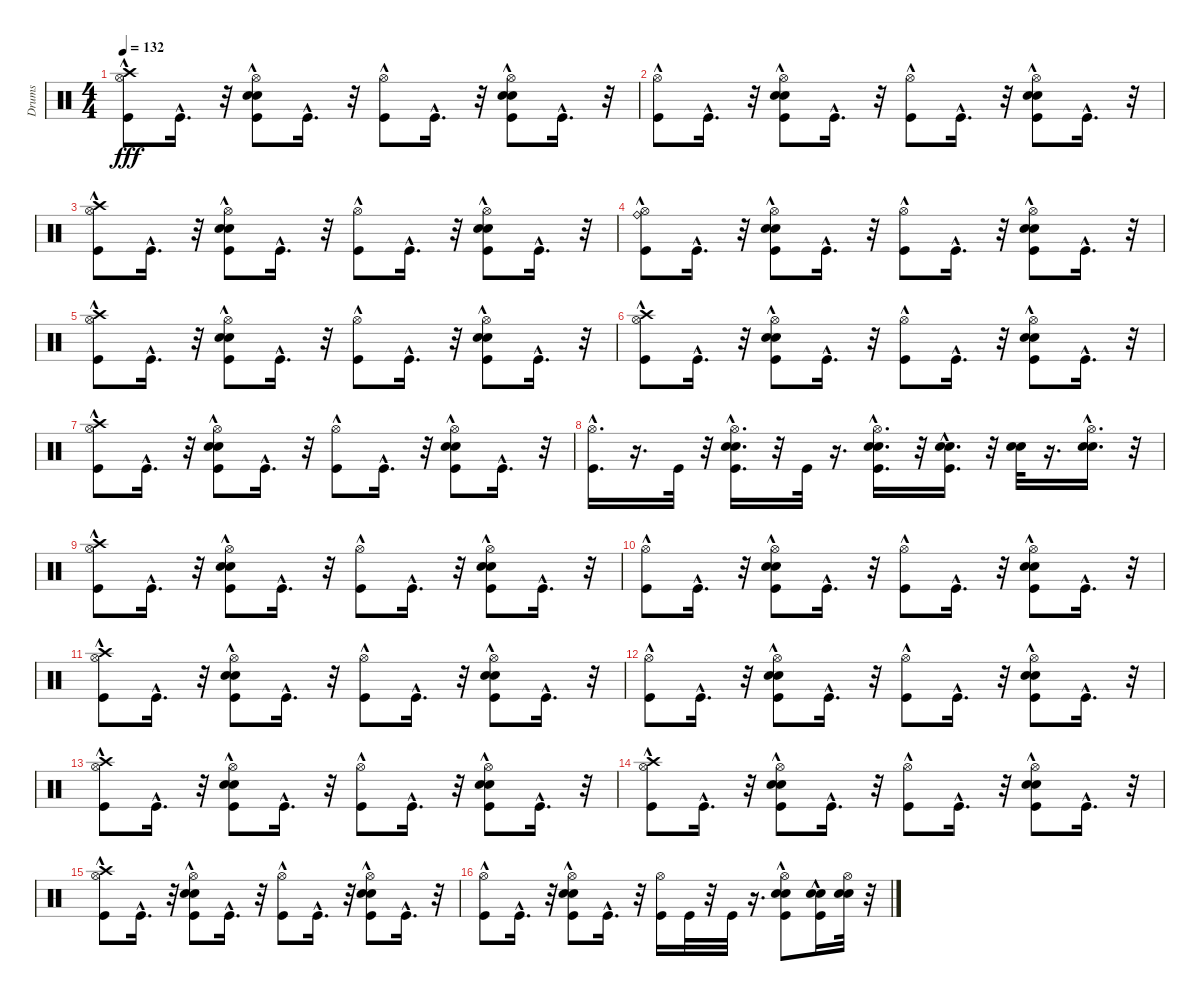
\track ("Drums" "Drums") {instrument percussion}
\staff {score}
\articulation defaults
\ts (4 4)
\tempo 132
\clef neutral
\ks c
("Hi-Hat (open)" "Kick (hit)"{hac} "Crash high (hit)"{hac}).8{dy fff} "Kick (hit)"{hac}.16{d} r.32 ("Hi-Hat (open)" "Kick (hit)"{hac} "Snare (hit) 2"{hac} "Electric Snare (hit)"{hac}).8 "Kick (hit)"{hac}.16{d} r.32 ("Hi-Hat (open)" "Kick (hit)"{hac}).8 "Kick (hit)"{hac}.16{d} r.32 ("Hi-Hat (open)" "Kick (hit)"{hac} "Snare (hit) 2"{hac} "Electric Snare (hit)"{hac}).8 "Kick (hit)"{hac}.16{d} r.32 |
("Hi-Hat (open)" "Kick (hit)"{hac}).8 "Kick (hit)"{hac}.16{d} r.32 ("Hi-Hat (open)" "Kick (hit)"{hac} "Snare (hit) 2"{hac} "Electric Snare (hit)"{hac}).8 "Kick (hit)"{hac}.16{d} r.32 ("Hi-Hat (open)" "Kick (hit)"{hac}).8 "Kick (hit)"{hac}.16{d} r.32 ("Hi-Hat (open)" "Kick (hit)"{hac} "Snare (hit) 2"{hac} "Electric Snare (hit)"{hac}).8 "Kick (hit)"{hac}.16{d} r.32 |
("Hi-Hat (open)" "Kick (hit)"{hac} "Crash high (hit)"{hac}).8 "Kick (hit)"{hac}.16{d} r.32 ("Hi-Hat (open)" "Kick (hit)"{hac} "Snare (hit) 2"{hac} "Electric Snare (hit)"{hac}).8 "Kick (hit)"{hac}.16{d} r.32 ("Hi-Hat (open)" "Kick (hit)"{hac}).8 "Kick (hit)"{hac}.16{d} r.32 ("Hi-Hat (open)" "Kick (hit)"{hac} "Snare (hit) 2"{hac} "Electric Snare (hit)"{hac}).8 "Kick (hit)"{hac}.16{d} r.32 |
("Hi-Hat (open)" "Kick (hit)"{hac} "Ride (bell)"{hac}).8 "Kick (hit)"{hac}.16{d} r.32 ("Hi-Hat (open)" "Kick (hit)"{hac} "Snare (hit) 2"{hac} "Electric Snare (hit)"{hac}).8 "Kick (hit)"{hac}.16{d} r.32 ("Hi-Hat (open)" "Kick (hit)"{hac}).8 "Kick (hit)"{hac}.16{d} r.32 ("Hi-Hat (open)" "Kick (hit)"{hac} "Snare (hit) 2"{hac} "Electric Snare (hit)"{hac}).8 "Kick (hit)"{hac}.16{d} r.32 |
("Hi-Hat (open)" "Kick (hit)"{hac} "Crash high (hit)"{hac}).8 "Kick (hit)"{hac}.16{d} r.32 ("Hi-Hat (open)" "Kick (hit)"{hac} "Snare (hit) 2"{hac} "Electric Snare (hit)"{hac}).8 "Kick (hit)"{hac}.16{d} r.32 ("Hi-Hat (open)" "Kick (hit)"{hac}).8 "Kick (hit)"{hac}.16{d} r.32 ("Hi-Hat (open)" "Kick (hit)"{hac} "Snare (hit) 2"{hac} "Electric Snare (hit)"{hac}).8 "Kick (hit)"{hac}.16{d} r.32 |
("Hi-Hat (open)" "Kick (hit)"{hac} "Crash high (hit)"{hac}).8 "Kick (hit)"{hac}.16{d} r.32 ("Hi-Hat (open)" "Kick (hit)"{hac} "Snare (hit) 2"{hac} "Electric Snare (hit)"{hac}).8 "Kick (hit)"{hac}.16{d} r.32 ("Hi-Hat (open)" "Kick (hit)"{hac}).8 "Kick (hit)"{hac}.16{d} r.32 ("Hi-Hat (open)" "Kick (hit)"{hac} "Snare (hit) 2"{hac} "Electric Snare (hit)"{hac}).8 "Kick (hit)"{hac}.16{d} r.32 |
("Hi-Hat (open)" "Kick (hit)"{hac} "Crash high (hit)"{hac}).8 "Kick (hit)"{hac}.16{d} r.32 ("Hi-Hat (open)" "Kick (hit)"{hac} "Snare (hit) 2"{hac} "Electric Snare (hit)"{hac}).8 "Kick (hit)"{hac}.16{d} r.32 ("Hi-Hat (open)" "Kick (hit)"{hac}).8 "Kick (hit)"{hac}.16{d} r.32 ("Hi-Hat (open)" "Kick (hit)"{hac} "Snare (hit) 2"{hac} "Electric Snare (hit)"{hac}).8 "Kick (hit)"{hac}.16{d} r.32 |
("Kick (hit)"{hac} "Hi-Hat (open)"{hac}).16{d} r.16{d} "Kick (hit)".32 r.32 ("Kick (hit)"{hac} "Hi-Hat (open)"{hac} "Snare (hit) 2"{hac} "Electric Snare (hit)"{hac}).16{d} r.32 "Kick (hit)".32 r.16{d} ("Kick (hit)"{hac} "Hi-Hat (open)"{hac} "Snare (hit) 2"{hac} "Electric Snare (hit)"{hac}).16{d} r.32 ("Kick (hit)" "Snare (hit) 2"{hac} "Electric Snare (hit)"{hac}).16{d} r.32 ("Snare (hit) 2" "Electric Snare (hit)").32 r.16{d} ("Hi-Hat (open)"{hac} "Snare (hit) 2"{hac} "Electric Snare (hit)"{hac}).16{d} r.32 |
("Hi-Hat (open)" "Kick (hit)"{hac} "Crash high (hit)"{hac}).8 "Kick (hit)"{hac}.16{d} r.32 ("Hi-Hat (open)" "Kick (hit)"{hac} "Snare (hit) 2"{hac} "Electric Snare (hit)"{hac}).8 "Kick (hit)"{hac}.16{d} r.32 ("Hi-Hat (open)" "Kick (hit)"{hac}).8 "Kick (hit)"{hac}.16{d} r.32 ("Hi-Hat (open)" "Kick (hit)"{hac} "Snare (hit) 2"{hac} "Electric Snare (hit)"{hac}).8 "Kick (hit)"{hac}.16{d} r.32 |
("Hi-Hat (open)" "Kick (hit)"{hac}).8 "Kick (hit)"{hac}.16{d} r.32 ("Hi-Hat (open)" "Kick (hit)"{hac} "Snare (hit) 2"{hac} "Electric Snare (hit)"{hac}).8 "Kick (hit)"{hac}.16{d} r.32 ("Hi-Hat (open)" "Kick (hit)"{hac}).8 "Kick (hit)"{hac}.16{d} r.32 ("Hi-Hat (open)" "Kick (hit)"{hac} "Snare (hit) 2"{hac} "Electric Snare (hit)"{hac}).8 "Kick (hit)"{hac}.16{d} r.32 |
("Hi-Hat (open)" "Kick (hit)"{hac} "Crash high (hit)"{hac}).8 "Kick (hit)"{hac}.16{d} r.32 ("Hi-Hat (open)" "Kick (hit)"{hac} "Snare (hit) 2"{hac} "Electric Snare (hit)"{hac}).8 "Kick (hit)"{hac}.16{d} r.32 ("Hi-Hat (open)" "Kick (hit)"{hac}).8 "Kick (hit)"{hac}.16{d} r.32 ("Hi-Hat (open)" "Kick (hit)"{hac} "Snare (hit) 2"{hac} "Electric Snare (hit)"{hac}).8 "Kick (hit)"{hac}.16{d} r.32 |
("Hi-Hat (open)" "Kick (hit)"{hac}).8 "Kick (hit)"{hac}.16{d} r.32 ("Hi-Hat (open)" "Kick (hit)"{hac} "Snare (hit) 2"{hac} "Electric Snare (hit)"{hac}).8 "Kick (hit)"{hac}.16{d} r.32 ("Hi-Hat (open)" "Kick (hit)"{hac}).8 "Kick (hit)"{hac}.16{d} r.32 ("Hi-Hat (open)" "Kick (hit)"{hac} "Snare (hit) 2"{hac} "Electric Snare (hit)"{hac}).8 "Kick (hit)"{hac}.16{d} r.32 |
("Hi-Hat (open)" "Kick (hit)"{hac} "Crash high (hit)").8 "Kick (hit)"{hac}.16{d} r.32 ("Hi-Hat (open)" "Kick (hit)"{hac} "Snare (hit) 2"{hac} "Electric Snare (hit)"{hac}).8 "Kick (hit)"{hac}.16{d} r.32 ("Hi-Hat (open)" "Kick (hit)"{hac}).8 "Kick (hit)"{hac}.16{d} r.32 ("Hi-Hat (open)" "Kick (hit)"{hac} "Snare (hit) 2"{hac} "Electric Snare (hit)"{hac}).8 "Kick (hit)"{hac}.16{d} r.32 |
("Hi-Hat (open)" "Kick (hit)"{hac} "Crash high (hit)"{hac}).8 "Kick (hit)"{hac}.16{d} r.32 ("Hi-Hat (open)" "Kick (hit)"{hac} "Snare (hit) 2"{hac} "Electric Snare (hit)"{hac}).8 "Kick (hit)"{hac}.16{d} r.32 ("Hi-Hat (open)" "Kick (hit)"{hac}).8 "Kick (hit)"{hac}.16{d} r.32 ("Hi-Hat (open)" "Kick (hit)"{hac} "Snare (hit) 2"{hac} "Electric Snare (hit)"{hac}).8 "Kick (hit)"{hac}.16{d} r.32 |
("Hi-Hat (open)" "Kick (hit)"{hac} "Crash high (hit)"{hac}).8 "Kick (hit)"{hac}.16{d} r.32 ("Hi-Hat (open)" "Kick (hit)"{hac} "Snare (hit) 2"{hac} "Electric Snare (hit)"{hac}).8 "Kick (hit)"{hac}.16{d} r.32 ("Hi-Hat (open)" "Kick (hit)"{hac}).8 "Kick (hit)"{hac}.16{d} r.32 ("Hi-Hat (open)" "Kick (hit)"{hac} "Snare (hit) 2"{hac} "Electric Snare (hit)"{hac}).8 "Kick (hit)"{hac}.16{d} r.32 |
("Hi-Hat (open)" "Kick (hit)"{hac}).8 "Kick (hit)"{hac}.16{d} r.32 ("Hi-Hat (open)" "Kick (hit)"{hac} "Snare (hit) 2"{hac} "Electric Snare (hit)"{hac}).8 "Kick (hit)"{hac}.16{d} r.32 ("Hi-Hat (open)" "Kick (hit)").16 "Kick (hit)".32 r.32 "Kick (hit)".32 r.16{d} ("Hi-Hat (open)" "Kick (hit)"{hac} "Snare (hit) 2"{hac} "Electric Snare (hit)"{hac}).8 ("Kick (hit)"{hac} "Snare (hit) 2" "Electric Snare (hit)").16 ("Snare (hit) 2" "Electric Snare (hit)" "Hi-Hat (open)").32 r.32
